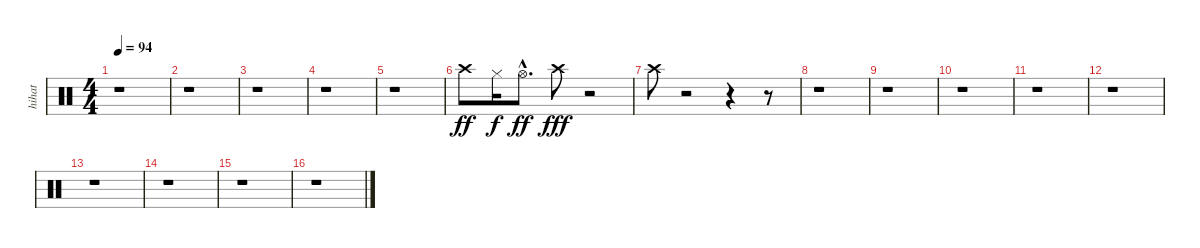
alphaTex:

\track ("hihat" "hihat") {instrument percussion}
\staff {score}
\articulation defaults
\ts (4 4)
\tempo 94
\clef neutral
\ks c
r.1{dy mf} |
r.1 |
r.1 |
r.1 |
r.1 |
"Crash high (hit)".8{dy ff} "Hi-Hat (closed)".16{dy f} "Hi-Hat (open)"{hac}.8{d dy ff} "Crash high (hit)".8{dy fff} r.2 |
"Crash high (hit)".8 r.2 r.4 r.8 |
r.1 |
r.1 |
r.1 |
r.1 |
r.1 |
r.1 |
r.1 |
r.1 |
r.1
